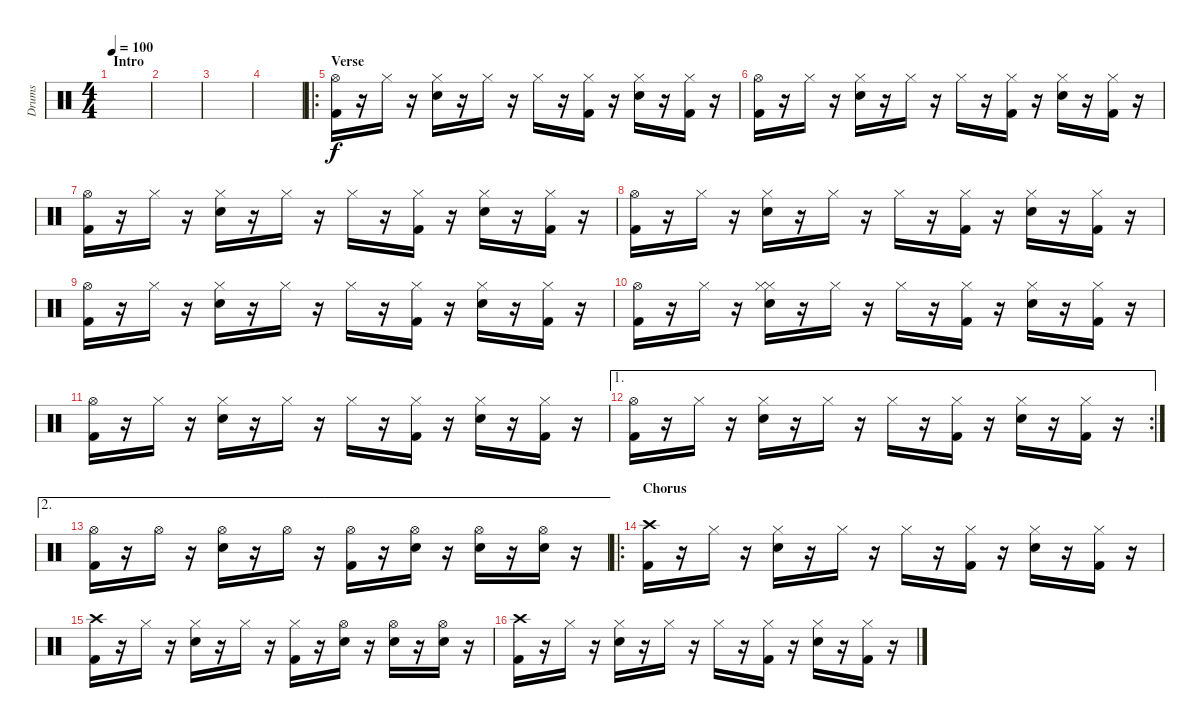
\track ("Drums" "Drums") {instrument percussion}
\staff {score}
\articulation defaults
\ts (4 4)
\section ("" "Intro")
\tempo 100
\clef neutral
\ks c
|
|
|
|
\ro
\section ("" "Verse")
("Hi-Hat (open)" "Kick (hit) 2").16 r.16 "Hi-Hat (closed)".16 r.16 ("Hi-Hat (closed)" "Snare (hit) 2").16 r.16 "Hi-Hat (closed)".16 r.16 "Hi-Hat (closed)".16 r.16 ("Hi-Hat (closed)" "Kick (hit) 2").16 r.16 ("Hi-Hat (closed)" "Snare (hit) 2").16 r.16 ("Hi-Hat (closed)" "Kick (hit) 2").16 r.16 |
("Hi-Hat (open)" "Kick (hit) 2").16 r.16 "Hi-Hat (closed)".16 r.16 ("Hi-Hat (closed)" "Snare (hit) 2").16 r.16 "Hi-Hat (closed)".16 r.16 "Hi-Hat (closed)".16 r.16 ("Hi-Hat (closed)" "Kick (hit) 2").16 r.16 ("Hi-Hat (closed)" "Snare (hit) 2").16 r.16 ("Hi-Hat (closed)" "Kick (hit) 2").16 r.16 |
("Hi-Hat (open)" "Kick (hit) 2").16 r.16 "Hi-Hat (closed)".16 r.16 ("Hi-Hat (closed)" "Snare (hit) 2").16 r.16 "Hi-Hat (closed)".16 r.16 "Hi-Hat (closed)".16 r.16 ("Hi-Hat (closed)" "Kick (hit) 2").16 r.16 ("Hi-Hat (closed)" "Snare (hit) 2").16 r.16 ("Hi-Hat (closed)" "Kick (hit) 2").16 r.16 |
("Hi-Hat (open)" "Kick (hit) 2").16 r.16 "Hi-Hat (closed)".16 r.16 ("Hi-Hat (closed)" "Snare (hit) 2").16 r.16 "Hi-Hat (closed)".16 r.16 "Hi-Hat (closed)".16 r.16 ("Hi-Hat (closed)" "Kick (hit) 2").16 r.16 ("Hi-Hat (closed)" "Snare (hit) 2").16 r.16 ("Hi-Hat (closed)" "Kick (hit) 2").16 r.16 |
("Hi-Hat (open)" "Kick (hit) 2").16 r.16 "Hi-Hat (closed)".16 r.16 ("Hi-Hat (closed)" "Snare (hit) 2").16 r.16 "Hi-Hat (closed)".16 r.16 "Hi-Hat (closed)".16 r.16 ("Hi-Hat (closed)" "Kick (hit) 2").16 r.16 ("Hi-Hat (closed)" "Snare (hit) 2").16 r.16 ("Hi-Hat (closed)" "Kick (hit) 2").16 r.16 |
("Hi-Hat (open)" "Kick (hit) 2").16 r.16 "Hi-Hat (closed)".16 r.16 ("Hi-Hat (closed)" "Hi-Hat (closed)" "Snare (hit) 2").16 r.16 "Hi-Hat (closed)".16 r.16 "Hi-Hat (closed)".16 r.16 ("Hi-Hat (closed)" "Kick (hit) 2").16 r.16 ("Hi-Hat (closed)" "Snare (hit) 2").16 r.16 ("Hi-Hat (closed)" "Kick (hit) 2").16 r.16 |
("Hi-Hat (open)" "Kick (hit) 2").16 r.16 "Hi-Hat (closed)".16 r.16 ("Hi-Hat (closed)" "Snare (hit) 2").16 r.16 "Hi-Hat (closed)".16 r.16 "Hi-Hat (closed)".16 r.16 ("Hi-Hat (closed)" "Kick (hit) 2").16 r.16 ("Hi-Hat (closed)" "Snare (hit) 2").16 r.16 ("Hi-Hat (closed)" "Kick (hit) 2").16 r.16 |
\ae 1
\rc 2
("Hi-Hat (open)" "Kick (hit) 2").16 r.16 "Hi-Hat (closed)".16 r.16 ("Hi-Hat (closed)" "Snare (hit) 2").16 r.16 "Hi-Hat (closed)".16 r.16 "Hi-Hat (closed)".16 r.16 ("Hi-Hat (closed)" "Kick (hit) 2").16 r.16 ("Hi-Hat (closed)" "Snare (hit) 2").16 r.16 ("Hi-Hat (closed)" "Kick (hit) 2").16 r.16 |
\ae 2
("Hi-Hat (open)" "Kick (hit) 2").16 r.16 "Hi-Hat (open)".16 r.16 ("Hi-Hat (open)" "Snare (hit) 2").16 r.16 "Hi-Hat (open)".16 r.16 ("Hi-Hat (open)" "Kick (hit) 2").16 r.16 ("Hi-Hat (open)" "Snare (hit) 2").16 r.16 ("Hi-Hat (open)" "Snare (hit) 2").16 r.16 ("Hi-Hat (open)" "Snare (hit) 2").16 r.16 |
\ro
\section ("" "Chorus")
("Crash high (hit)" "Kick (hit) 2").16 r.16 "Hi-Hat (closed)".16 r.16 ("Hi-Hat (closed)" "Snare (hit) 2").16 r.16 "Hi-Hat (closed)".16 r.16 "Hi-Hat (closed)".16 r.16 ("Hi-Hat (closed)" "Kick (hit) 2").16 r.16 ("Hi-Hat (closed)" "Snare (hit) 2").16 r.16 ("Hi-Hat (closed)" "Kick (hit) 2").16 r.16 |
("Crash high (hit)" "Kick (hit) 2").16 r.16 "Hi-Hat (closed)".16 r.16 ("Hi-Hat (closed)" "Snare (hit) 2").16 r.16 "Hi-Hat (closed)".16 r.16 ("Hi-Hat (closed)" "Kick (hit) 2").16 r.16 ("Hi-Hat (open)" "Snare (hit) 2").16 r.16 ("Hi-Hat (open)" "Snare (hit) 2").16 r.16 ("Hi-Hat (open)" "Snare (hit) 2").16 r.16 |
("Crash high (hit)" "Kick (hit) 2").16 r.16 "Hi-Hat (closed)".16 r.16 ("Hi-Hat (closed)" "Snare (hit) 2").16 r.16 "Hi-Hat (closed)".16 r.16 "Hi-Hat (closed)".16 r.16 ("Hi-Hat (closed)" "Kick (hit) 2").16 r.16 ("Hi-Hat (closed)" "Snare (hit) 2").16 r.16 ("Hi-Hat (closed)" "Kick (hit) 2").16 r.16
